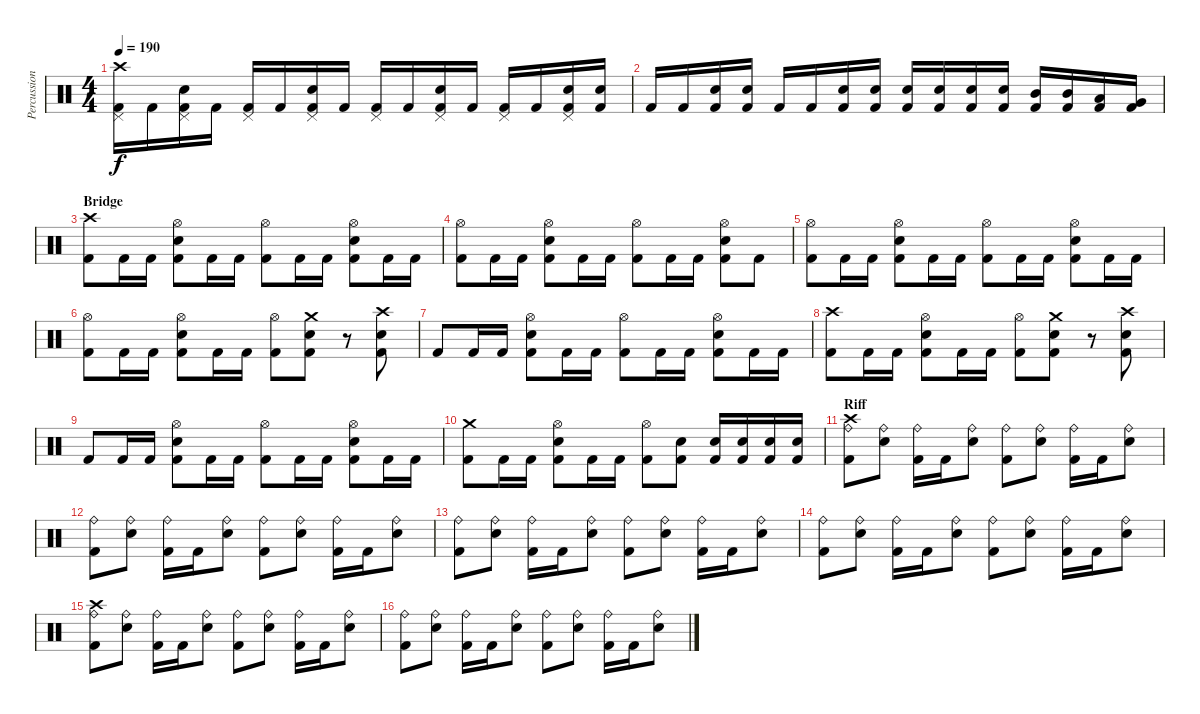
\track ("Percussion" "Percussion") {instrument percussion}
\staff {score}
\articulation defaults
\ts (4 4)
\tempo 190
\clef neutral
\ks c
("Crash high (hit)" "Pedal Hi-Hat (hit)" "Kick (hit) 2").16{dy f} "Kick (hit) 2".16 ("Pedal Hi-Hat (hit)" "Snare (hit) 2" "Kick (hit) 2").16 "Kick (hit) 2".16 ("Pedal Hi-Hat (hit)" "Kick (hit) 2").16 "Kick (hit) 2".16 ("Pedal Hi-Hat (hit)" "Snare (hit) 2" "Kick (hit) 2").16 "Kick (hit) 2".16 ("Pedal Hi-Hat (hit)" "Kick (hit) 2").16 "Kick (hit) 2".16 ("Pedal Hi-Hat (hit)" "Snare (hit) 2" "Kick (hit) 2").16 "Kick (hit) 2".16 ("Pedal Hi-Hat (hit)" "Kick (hit) 2").16 "Kick (hit) 2".16 ("Pedal Hi-Hat (hit)" "Snare (hit) 2" "Kick (hit) 2").16 ("Snare (hit) 2" "Kick (hit) 2").16 |
"Kick (hit) 2".16 "Kick (hit) 2".16 ("Snare (hit) 2" "Kick (hit) 2").16 ("Snare (hit) 2" "Kick (hit) 2").16 "Kick (hit) 2".16 "Kick (hit) 2".16 ("Snare (hit) 2" "Kick (hit) 2").16 ("Snare (hit) 2" "Kick (hit) 2").16 ("Snare (hit) 2" "Kick (hit) 2").16 ("Snare (hit) 2" "Kick (hit) 2").16 ("Snare (hit) 2" "Kick (hit) 2").16 ("Snare (hit) 2" "Kick (hit) 2").16 ("Mid Tom (hit)" "Kick (hit) 2").16 ("Mid Tom (hit)" "Kick (hit) 2").16 ("Low Tom (hit)" "Kick (hit) 2").16 ("Very Low Tom (hit)" "Kick (hit) 2").16 |
\section ("" "Bridge")
("Crash high (hit)" "Kick (hit) 2").8 "Kick (hit) 2".16 "Kick (hit) 2".16 ("Hi-Hat (open)" "Snare (hit) 2" "Kick (hit) 2").8 "Kick (hit) 2".16 "Kick (hit) 2".16 ("Hi-Hat (open)" "Kick (hit) 2").8 "Kick (hit) 2".16 "Kick (hit) 2".16 ("Hi-Hat (open)" "Snare (hit) 2" "Kick (hit) 2").8 "Kick (hit) 2".16 "Kick (hit) 2".16 |
("Hi-Hat (open)" "Kick (hit) 2").8 "Kick (hit) 2".16 "Kick (hit) 2".16 ("Hi-Hat (open)" "Snare (hit) 2" "Kick (hit) 2").8 "Kick (hit) 2".16 "Kick (hit) 2".16 ("Hi-Hat (open)" "Kick (hit) 2").8 "Kick (hit) 2".16 "Kick (hit) 2".16 ("Hi-Hat (open)" "Snare (hit) 2" "Kick (hit) 2").8 "Kick (hit) 2".8 |
("Hi-Hat (open)" "Kick (hit) 2").8 "Kick (hit) 2".16 "Kick (hit) 2".16 ("Hi-Hat (open)" "Snare (hit) 2" "Kick (hit) 2").8 "Kick (hit) 2".16 "Kick (hit) 2".16 ("Hi-Hat (open)" "Kick (hit) 2").8 "Kick (hit) 2".16 "Kick (hit) 2".16 ("Hi-Hat (open)" "Snare (hit) 2" "Kick (hit) 2").8 "Kick (hit) 2".16 "Kick (hit) 2".16 |
("Hi-Hat (open)" "Kick (hit) 2").8 "Kick (hit) 2".16 "Kick (hit) 2".16 ("Hi-Hat (open)" "Snare (hit) 2" "Kick (hit) 2").8 "Kick (hit) 2".16 "Kick (hit) 2".16 ("Hi-Hat (open)" "Kick (hit) 2").8 ("Crash medium (hit)" "Snare (hit) 2" "Kick (hit) 2").8 r.8 ("Crash high (hit)" "Snare (hit) 2" "Kick (hit) 2").8 |
"Kick (hit) 2".8 "Kick (hit) 2".16 "Kick (hit) 2".16 ("Hi-Hat (open)" "Snare (hit) 2" "Kick (hit) 2").8 "Kick (hit) 2".16 "Kick (hit) 2".16 ("Hi-Hat (open)" "Kick (hit) 2").8 "Kick (hit) 2".16 "Kick (hit) 2".16 ("Hi-Hat (open)" "Snare (hit) 2" "Kick (hit) 2").8 "Kick (hit) 2".16 "Kick (hit) 2".16 |
("Crash high (hit)" "Kick (hit) 2").8 "Kick (hit) 2".16 "Kick (hit) 2".16 ("Hi-Hat (open)" "Snare (hit) 2" "Kick (hit) 2").8 "Kick (hit) 2".16 "Kick (hit) 2".16 ("Hi-Hat (open)" "Kick (hit) 2").8 ("Crash medium (hit)" "Snare (hit) 2" "Kick (hit) 2").8 r.8 ("Crash high (hit)" "Snare (hit) 2" "Kick (hit) 2").8 |
"Kick (hit) 2".8 "Kick (hit) 2".16 "Kick (hit) 2".16 ("Hi-Hat (open)" "Snare (hit) 2" "Kick (hit) 2").8 "Kick (hit) 2".16 "Kick (hit) 2".16 ("Hi-Hat (open)" "Kick (hit) 2").8 "Kick (hit) 2".16 "Kick (hit) 2".16 ("Hi-Hat (open)" "Snare (hit) 2" "Kick (hit) 2").8 "Kick (hit) 2".16 "Kick (hit) 2".16 |
("Crash medium (hit)" "Kick (hit) 2").8 "Kick (hit) 2".16 "Kick (hit) 2".16 ("Hi-Hat (open)" "Snare (hit) 2" "Kick (hit) 2").8 "Kick (hit) 2".16 "Kick (hit) 2".16 ("Hi-Hat (open)" "Kick (hit) 2").8 ("Snare (hit) 2" "Kick (hit) 2").8 ("Snare (hit) 2" "Kick (hit) 2").16 ("Snare (hit) 2" "Kick (hit) 2").16 ("Snare (hit) 2" "Kick (hit) 2").16 ("Snare (hit) 2" "Kick (hit) 2").16 |
\section ("" "Riff")
("Crash high (hit)" "Ride (bell)" "Kick (hit) 2").8 ("Ride (bell)" "Snare (hit) 2").8 ("Ride (bell)" "Kick (hit) 2").16 "Kick (hit) 2".16 ("Ride (bell)" "Snare (hit) 2").8 ("Ride (bell)" "Kick (hit) 2").8 ("Ride (bell)" "Snare (hit) 2").8 ("Ride (bell)" "Kick (hit) 2").16 "Kick (hit) 2".16 ("Ride (bell)" "Snare (hit) 2").8 |
("Ride (bell)" "Kick (hit) 2").8 ("Ride (bell)" "Snare (hit) 2").8 ("Ride (bell)" "Kick (hit) 2").16 "Kick (hit) 2".16 ("Ride (bell)" "Snare (hit) 2").8 ("Ride (bell)" "Kick (hit) 2").8 ("Ride (bell)" "Snare (hit) 2").8 ("Ride (bell)" "Kick (hit) 2").16 "Kick (hit) 2".16 ("Ride (bell)" "Snare (hit) 2").8 |
("Ride (bell)" "Kick (hit) 2").8 ("Ride (bell)" "Snare (hit) 2").8 ("Ride (bell)" "Kick (hit) 2").16 "Kick (hit) 2".16 ("Ride (bell)" "Snare (hit) 2").8 ("Ride (bell)" "Kick (hit) 2").8 ("Ride (bell)" "Snare (hit) 2").8 ("Ride (bell)" "Kick (hit) 2").16 "Kick (hit) 2".16 ("Ride (bell)" "Snare (hit) 2").8 |
("Ride (bell)" "Kick (hit) 2").8 ("Ride (bell)" "Snare (hit) 2").8 ("Ride (bell)" "Kick (hit) 2").16 "Kick (hit) 2".16 ("Ride (bell)" "Snare (hit) 2").8 ("Ride (bell)" "Kick (hit) 2").8 ("Ride (bell)" "Snare (hit) 2").8 ("Ride (bell)" "Kick (hit) 2").16 "Kick (hit) 2".16 ("Ride (bell)" "Snare (hit) 2").8 |
("Crash high (hit)" "Ride (bell)" "Kick (hit) 2").8 ("Ride (bell)" "Snare (hit) 2").8 ("Ride (bell)" "Kick (hit) 2").16 "Kick (hit) 2".16 ("Ride (bell)" "Snare (hit) 2").8 ("Ride (bell)" "Kick (hit) 2").8 ("Ride (bell)" "Snare (hit) 2").8 ("Ride (bell)" "Kick (hit) 2").16 "Kick (hit) 2".16 ("Ride (bell)" "Snare (hit) 2").8 |
("Ride (bell)" "Kick (hit) 2").8 ("Ride (bell)" "Snare (hit) 2").8 ("Ride (bell)" "Kick (hit) 2").16 "Kick (hit) 2".16 ("Ride (bell)" "Snare (hit) 2").8 ("Ride (bell)" "Kick (hit) 2").8 ("Ride (bell)" "Snare (hit) 2").8 ("Ride (bell)" "Kick (hit) 2").16 "Kick (hit) 2".16 ("Ride (bell)" "Snare (hit) 2").8
